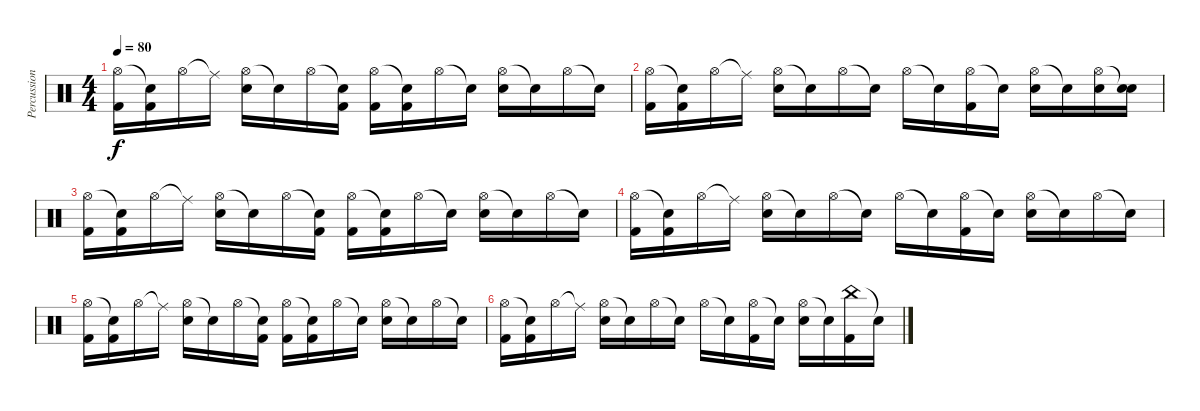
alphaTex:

\track ("Percussion" "Percussion") {instrument percussion}
\staff {score}
\articulation defaults
\ts (4 4)
\tempo 80
\clef neutral
\ks c
("Hi-Hat (open)" "Kick (hit) 2").16{dy f} ("Snare (hit)"{t} "Kick (hit) 2").16 "Hi-Hat (open)".16 "Ride (middle)"{t}.16 ("Hi-Hat (open)" "Electric Snare (hit)").16 "Snare (hit)"{t}.16 "Hi-Hat (open)".16 ("Snare (hit)"{t} "Kick (hit) 2").16 ("Hi-Hat (open)" "Kick (hit) 2").16 ("Snare (hit)"{t} "Kick (hit) 2").16 "Hi-Hat (open)".16 "Snare (hit)"{t}.16 ("Hi-Hat (open)" "Electric Snare (hit)").16 "Snare (hit)"{t}.16 "Hi-Hat (open)".16 "Snare (hit)"{t}.16 |
("Hi-Hat (open)" "Kick (hit) 2").16 ("Snare (hit)"{t} "Kick (hit) 2").16 "Hi-Hat (open)".16 "Ride (middle)"{t}.16 ("Hi-Hat (open)" "Electric Snare (hit)").16 "Snare (hit)"{t}.16 "Hi-Hat (open)".16 "Snare (hit)"{t}.16 "Hi-Hat (open)".16 "Snare (hit)"{t}.16 ("Hi-Hat (open)" "Kick (hit) 2").16 "Snare (hit)"{t}.16 ("Hi-Hat (open)" "Electric Snare (hit)").16 "Snare (hit)"{t}.16 ("Hi-Hat (open)" "Electric Snare (hit)").16 ("Snare (hit)"{t} "Electric Snare (hit)").16 |
("Hi-Hat (open)" "Kick (hit) 2").16 ("Snare (hit)"{t} "Kick (hit) 2").16 "Hi-Hat (open)".16 "Ride (middle)"{t}.16 ("Hi-Hat (open)" "Electric Snare (hit)").16 "Snare (hit)"{t}.16 "Hi-Hat (open)".16 ("Snare (hit)"{t} "Kick (hit) 2").16 ("Hi-Hat (open)" "Kick (hit) 2").16 ("Snare (hit)"{t} "Kick (hit) 2").16 "Hi-Hat (open)".16 "Snare (hit)"{t}.16 ("Hi-Hat (open)" "Electric Snare (hit)").16 "Snare (hit)"{t}.16 "Hi-Hat (open)".16 "Snare (hit)"{t}.16 |
("Hi-Hat (open)" "Kick (hit) 2").16 ("Snare (hit)"{t} "Kick (hit) 2").16 "Hi-Hat (open)".16 "Ride (middle)"{t}.16 ("Hi-Hat (open)" "Electric Snare (hit)").16 "Snare (hit)"{t}.16 "Hi-Hat (open)".16 "Snare (hit)"{t}.16 "Hi-Hat (open)".16 "Snare (hit)"{t}.16 ("Hi-Hat (open)" "Kick (hit) 2").16 "Snare (hit)"{t}.16 ("Hi-Hat (open)" "Electric Snare (hit)").16 "Snare (hit)"{t}.16 "Hi-Hat (open)".16 "Snare (hit)"{t}.16 |
("Hi-Hat (open)" "Kick (hit) 2").16 ("Snare (hit)"{t} "Kick (hit) 2").16 "Hi-Hat (open)".16 "Ride (middle)"{t}.16 ("Hi-Hat (open)" "Electric Snare (hit)").16 "Snare (hit)"{t}.16 "Hi-Hat (open)".16 ("Snare (hit)"{t} "Kick (hit) 2").16 ("Hi-Hat (open)" "Kick (hit) 2").16 ("Snare (hit)"{t} "Kick (hit) 2").16 "Hi-Hat (open)".16 "Snare (hit)"{t}.16 ("Hi-Hat (open)" "Electric Snare (hit)").16 "Snare (hit)"{t}.16 "Hi-Hat (open)".16 "Snare (hit)"{t}.16 |
("Hi-Hat (open)" "Kick (hit) 2").16 ("Snare (hit)"{t} "Kick (hit) 2").16 "Hi-Hat (open)".16 "Ride (middle)"{t}.16 ("Hi-Hat (open)" "Electric Snare (hit)").16 "Snare (hit)"{t}.16 "Hi-Hat (open)".16 "Snare (hit)"{t}.16 "Hi-Hat (open)".16 "Snare (hit)"{t}.16 ("Hi-Hat (open)" "Kick (hit) 2").16 "Snare (hit)"{t}.16 ("Hi-Hat (open)" "Electric Snare (hit)").16 "Snare (hit)"{t}.16 ("China (hit)" "Kick (hit) 2").16 "Snare (hit)"{t}.16
